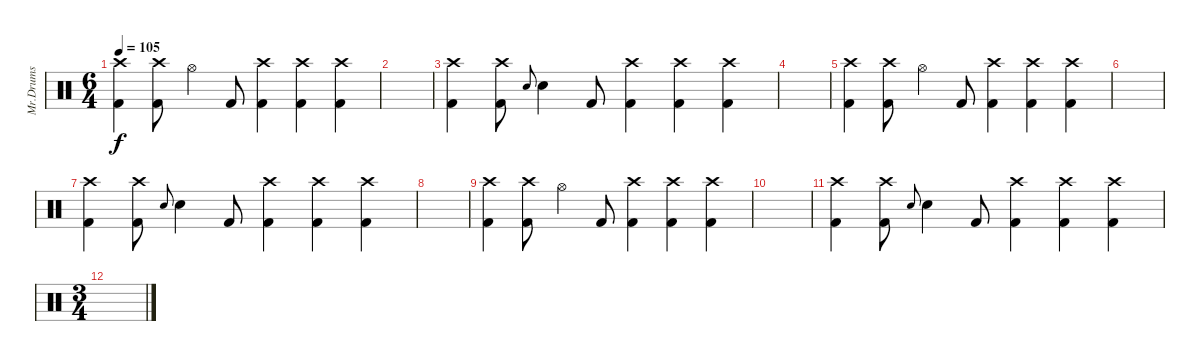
\track ("Mr.Drums" "Mr.Drums") {instrument percussion}
\staff {score}
\articulation defaults
\ts (6 4)
\tempo 105
\clef neutral
\ks c
("Crash high (hit)" "Kick (hit) 2").4{dy f} ("Crash high (hit)" "Kick (hit) 2").8 "Hi-Hat (open)".4 "Kick (hit) 2".8 ("Crash high (hit)" "Kick (hit) 2").4 ("Crash high (hit)" "Kick (hit) 2").4 ("Crash high (hit)" "Kick (hit) 2").4 |
|
("Crash high (hit)" "Kick (hit) 2").4 ("Crash high (hit)" "Kick (hit) 2").8 "Electric Snare (hit)".8{gr onbeat} "Electric Snare (hit)".4 "Kick (hit) 2".8 ("Crash high (hit)" "Kick (hit) 2").4 ("Crash high (hit)" "Kick (hit) 2").4 ("Crash high (hit)" "Kick (hit) 2").4 |
|
("Crash high (hit)" "Kick (hit) 2").4 ("Crash high (hit)" "Kick (hit) 2").8 "Hi-Hat (open)".4 "Kick (hit) 2".8 ("Crash high (hit)" "Kick (hit) 2").4 ("Crash high (hit)" "Kick (hit) 2").4 ("Crash high (hit)" "Kick (hit) 2").4 |
|
("Crash high (hit)" "Kick (hit) 2").4 ("Crash high (hit)" "Kick (hit) 2").8 "Electric Snare (hit)".8{gr onbeat} "Electric Snare (hit)".4 "Kick (hit) 2".8 ("Crash high (hit)" "Kick (hit) 2").4 ("Crash high (hit)" "Kick (hit) 2").4 ("Crash high (hit)" "Kick (hit) 2").4 |
|
("Crash high (hit)" "Kick (hit) 2").4 ("Crash high (hit)" "Kick (hit) 2").8 "Hi-Hat (open)".4 "Kick (hit) 2".8 ("Crash high (hit)" "Kick (hit) 2").4 ("Crash high (hit)" "Kick (hit) 2").4 ("Crash high (hit)" "Kick (hit) 2").4 |
|
("Crash high (hit)" "Kick (hit) 2").4 ("Crash high (hit)" "Kick (hit) 2").8 "Electric Snare (hit)".8{gr onbeat} "Electric Snare (hit)".4 "Kick (hit) 2".8 ("Crash high (hit)" "Kick (hit) 2").4 ("Crash high (hit)" "Kick (hit) 2").4 ("Crash high (hit)" "Kick (hit) 2").4 |
\ts (3 4)
